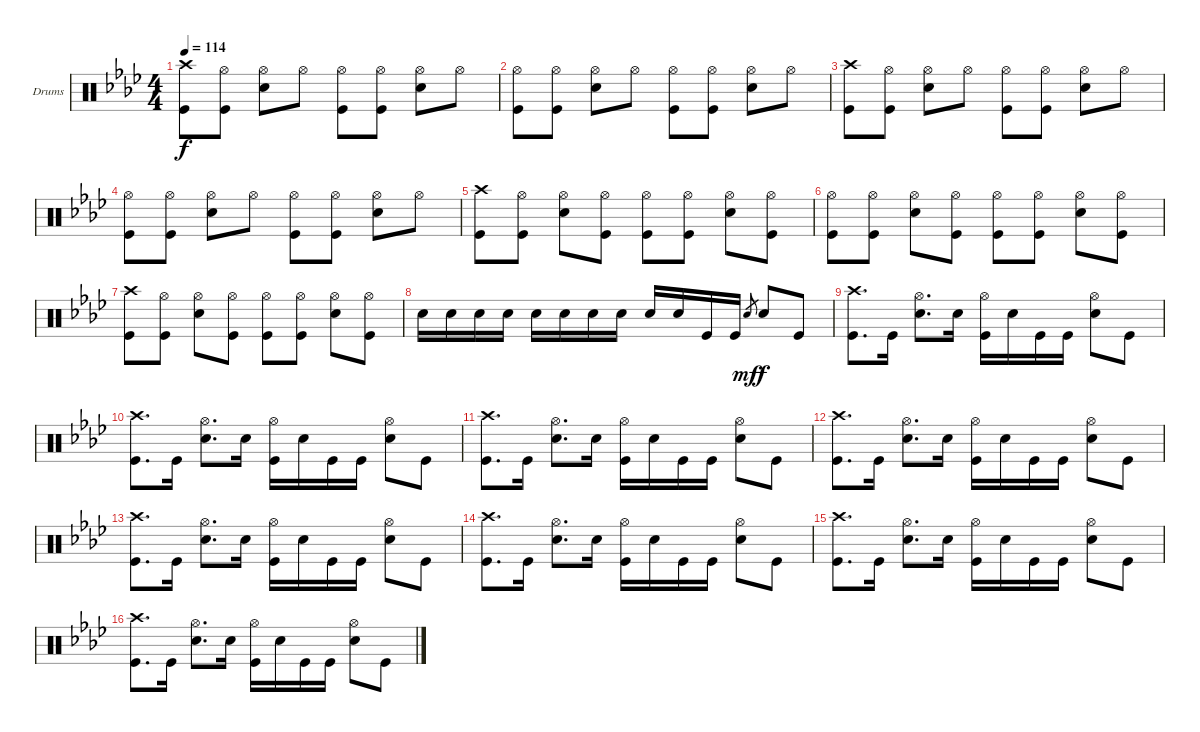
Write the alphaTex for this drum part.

\defaultSystemsLayout 4
\bracketExtendMode groupsimilarinstruments
\firstSystemTrackNameOrientation horizontal
\otherSystemsTrackNameOrientation horizontal
\track ("Drumkit" "Drums") {instrument percussion}
\staff {score}
\articulation defaults
\ts (4 4)
\tempo 114
\clef neutral
\scale
1.06431
\ks ab
("Crash high (hit)" "Kick (hit)").8{dy f} ("Hi-Hat (open)" "Kick (hit)").8 ("Hi-Hat (open)" "Snare (hit) 2").8 "Hi-Hat (open)".8 ("Hi-Hat (open)" "Kick (hit)").8 ("Hi-Hat (open)" "Kick (hit)").8 ("Hi-Hat (open)" "Snare (hit) 2").8 "Hi-Hat (open)".8 |
\scale
0.935687 ("Hi-Hat (open)" "Kick (hit)").8 ("Hi-Hat (open)" "Kick (hit)").8 ("Hi-Hat (open)" "Snare (hit) 2").8 "Hi-Hat (open)".8 ("Hi-Hat (open)" "Kick (hit)").8 ("Hi-Hat (open)" "Kick (hit)").8 ("Hi-Hat (open)" "Snare (hit) 2").8 "Hi-Hat (open)".8 |
\scale
1.06431 ("Crash high (hit)" "Kick (hit)").8 ("Hi-Hat (open)" "Kick (hit)").8 ("Hi-Hat (open)" "Snare (hit) 2").8 "Hi-Hat (open)".8 ("Hi-Hat (open)" "Kick (hit)").8 ("Hi-Hat (open)" "Kick (hit)").8 ("Hi-Hat (open)" "Snare (hit) 2").8 "Hi-Hat (open)".8 |
\scale
0.935687 ("Hi-Hat (open)" "Kick (hit)").8 ("Hi-Hat (open)" "Kick (hit)").8 ("Hi-Hat (open)" "Snare (hit) 2").8 "Hi-Hat (open)".8 ("Hi-Hat (open)" "Kick (hit)").8 ("Hi-Hat (open)" "Kick (hit)").8 ("Hi-Hat (open)" "Snare (hit) 2").8 "Hi-Hat (open)".8 |
\scale
1.06431 ("Crash high (hit)" "Kick (hit)").8 ("Hi-Hat (open)" "Kick (hit)").8 ("Hi-Hat (open)" "Snare (hit) 2").8 ("Hi-Hat (open)" "Kick (hit)").8 ("Hi-Hat (open)" "Kick (hit)").8 ("Hi-Hat (open)" "Kick (hit)").8 ("Hi-Hat (open)" "Snare (hit) 2").8 ("Hi-Hat (open)" "Kick (hit)").8 |
\scale
0.935687 ("Hi-Hat (open)" "Kick (hit)").8 ("Hi-Hat (open)" "Kick (hit)").8 ("Hi-Hat (open)" "Snare (hit) 2").8 ("Hi-Hat (open)" "Kick (hit)").8 ("Hi-Hat (open)" "Kick (hit)").8 ("Hi-Hat (open)" "Kick (hit)").8 ("Hi-Hat (open)" "Snare (hit) 2").8 ("Hi-Hat (open)" "Kick (hit)").8 |
\scale
1.06431 ("Crash high (hit)" "Kick (hit)").8 ("Hi-Hat (open)" "Kick (hit)").8 ("Hi-Hat (open)" "Snare (hit) 2").8 ("Hi-Hat (open)" "Kick (hit)").8 ("Hi-Hat (open)" "Kick (hit)").8 ("Hi-Hat (open)" "Kick (hit)").8 ("Hi-Hat (open)" "Snare (hit) 2").8 ("Hi-Hat (open)" "Kick (hit)").8 |
\scale
0.935687 "Snare (hit) 2".16 "Snare (hit) 2".16 "Snare (hit) 2".16 "Snare (hit) 2".16 "Snare (hit) 2".16 "Snare (hit) 2".16 "Snare (hit) 2".16 "Snare (hit) 2".16 "Snare (hit) 2".16 "Snare (hit) 2".16 "Kick (hit)".16 "Kick (hit)".16 "Snare (hit) 2".8{gr dy mf} "Snare (hit) 2".8{dy f} "Kick (hit)".8 |
\scale
1.06431 ("Crash high (hit)" "Kick (hit)").8{d} "Kick (hit)".16 ("Hi-Hat (open)" "Snare (hit) 2").8{d} "Snare (hit) 2".16 ("Hi-Hat (open)" "Kick (hit)").16 "Snare (hit) 2".16 "Kick (hit)".16 "Kick (hit)".16 ("Hi-Hat (open)" "Snare (hit) 2").8 "Kick (hit)".8 |
\scale
0.935687 ("Crash high (hit)" "Kick (hit)").8{d} "Kick (hit)".16 ("Hi-Hat (open)" "Snare (hit) 2").8{d} "Snare (hit) 2".16 ("Hi-Hat (open)" "Kick (hit)").16 "Snare (hit) 2".16 "Kick (hit)".16 "Kick (hit)".16 ("Hi-Hat (open)" "Snare (hit) 2").8 "Kick (hit)".8 |
\scale
1.06431 ("Crash high (hit)" "Kick (hit)").8{d} "Kick (hit)".16 ("Hi-Hat (open)" "Snare (hit) 2").8{d} "Snare (hit) 2".16 ("Hi-Hat (open)" "Kick (hit)").16 "Snare (hit) 2".16 "Kick (hit)".16 "Kick (hit)".16 ("Hi-Hat (open)" "Snare (hit) 2").8 "Kick (hit)".8 |
\scale
0.935687 ("Crash high (hit)" "Kick (hit)").8{d} "Kick (hit)".16 ("Hi-Hat (open)" "Snare (hit) 2").8{d} "Snare (hit) 2".16 ("Hi-Hat (open)" "Kick (hit)").16 "Snare (hit) 2".16 "Kick (hit)".16 "Kick (hit)".16 ("Hi-Hat (open)" "Snare (hit) 2").8 "Kick (hit)".8 |
\scale
1.06431 ("Crash high (hit)" "Kick (hit)").8{d} "Kick (hit)".16 ("Hi-Hat (open)" "Snare (hit) 2").8{d} "Snare (hit) 2".16 ("Hi-Hat (open)" "Kick (hit)").16 "Snare (hit) 2".16 "Kick (hit)".16 "Kick (hit)".16 ("Hi-Hat (open)" "Snare (hit) 2").8 "Kick (hit)".8 |
\scale
0.935687 ("Crash high (hit)" "Kick (hit)").8{d} "Kick (hit)".16 ("Hi-Hat (open)" "Snare (hit) 2").8{d} "Snare (hit) 2".16 ("Hi-Hat (open)" "Kick (hit)").16 "Snare (hit) 2".16 "Kick (hit)".16 "Kick (hit)".16 ("Hi-Hat (open)" "Snare (hit) 2").8 "Kick (hit)".8 |
\scale
1.06431 ("Crash high (hit)" "Kick (hit)").8{d} "Kick (hit)".16 ("Hi-Hat (open)" "Snare (hit) 2").8{d} "Snare (hit) 2".16 ("Hi-Hat (open)" "Kick (hit)").16 "Snare (hit) 2".16 "Kick (hit)".16 "Kick (hit)".16 ("Hi-Hat (open)" "Snare (hit) 2").8 "Kick (hit)".8 |
\scale
0.935687 ("Crash high (hit)" "Kick (hit)").8{d} "Kick (hit)".16 ("Hi-Hat (open)" "Snare (hit) 2").8{d} "Snare (hit) 2".16 ("Hi-Hat (open)" "Kick (hit)").16 "Snare (hit) 2".16 "Kick (hit)".16 "Kick (hit)".16 ("Hi-Hat (open)" "Snare (hit) 2").8 "Kick (hit)".8
